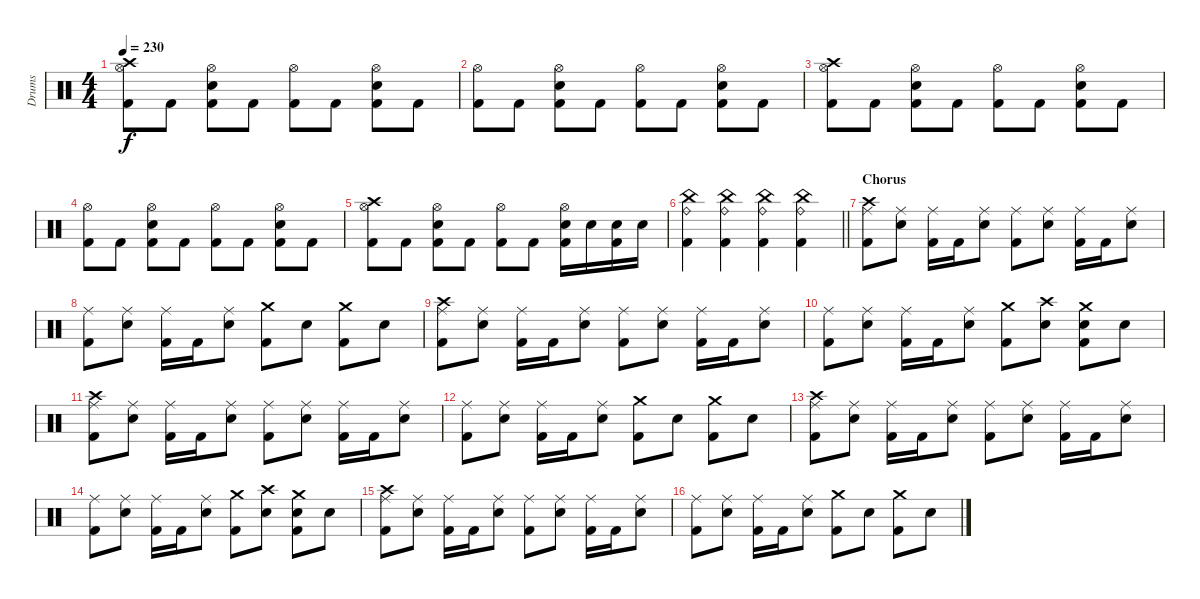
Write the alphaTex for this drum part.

\track ("Drums" "Drums") {instrument percussion}
\staff {score}
\articulation defaults
\ts (4 4)
\tempo 230
\clef neutral
\ks c
("Crash high (hit)" "Hi-Hat (open)" "Kick (hit) 2").8{dy f} "Kick (hit) 2".8 ("Hi-Hat (open)" "Snare (hit) 2" "Kick (hit) 2").8 "Kick (hit) 2".8 ("Hi-Hat (open)" "Kick (hit) 2").8 "Kick (hit) 2".8 ("Hi-Hat (open)" "Snare (hit) 2" "Kick (hit) 2").8 "Kick (hit) 2".8 |
("Hi-Hat (open)" "Kick (hit) 2").8 "Kick (hit) 2".8 ("Hi-Hat (open)" "Snare (hit) 2" "Kick (hit) 2").8 "Kick (hit) 2".8 ("Hi-Hat (open)" "Kick (hit) 2").8 "Kick (hit) 2".8 ("Hi-Hat (open)" "Snare (hit) 2" "Kick (hit) 2").8 "Kick (hit) 2".8 |
("Crash high (hit)" "Hi-Hat (open)" "Kick (hit) 2").8 "Kick (hit) 2".8 ("Hi-Hat (open)" "Snare (hit) 2" "Kick (hit) 2").8 "Kick (hit) 2".8 ("Hi-Hat (open)" "Kick (hit) 2").8 "Kick (hit) 2".8 ("Hi-Hat (open)" "Snare (hit) 2" "Kick (hit) 2").8 "Kick (hit) 2".8 |
("Hi-Hat (open)" "Kick (hit) 2").8 "Kick (hit) 2".8 ("Hi-Hat (open)" "Snare (hit) 2" "Kick (hit) 2").8 "Kick (hit) 2".8 ("Hi-Hat (open)" "Kick (hit) 2").8 "Kick (hit) 2".8 ("Hi-Hat (open)" "Snare (hit) 2" "Kick (hit) 2").8 "Kick (hit) 2".8 |
("Crash high (hit)" "Hi-Hat (open)" "Kick (hit) 2").8 "Kick (hit) 2".8 ("Hi-Hat (open)" "Snare (hit) 2" "Kick (hit) 2").8 "Kick (hit) 2".8 ("Hi-Hat (open)" "Kick (hit) 2").8 "Kick (hit) 2".8 ("Hi-Hat (open)" "Snare (hit) 2" "Kick (hit) 2").16 "Snare (hit) 2".16 ("Snare (hit) 2" "Kick (hit) 2").16 "Snare (hit) 2".16 |
\barLineRight lightlight
("China (hit)" "Ride (bell)" "Kick (hit) 2").4 ("China (hit)" "Ride (bell)" "Kick (hit) 2").4 ("China (hit)" "Ride (bell)" "Kick (hit) 2").4 ("China (hit)" "Ride (bell)" "Kick (hit) 2").4 |
\section ("" "Chorus")
("Crash high (hit)" "Ride (middle)" "Kick (hit) 2").8 ("Ride (middle)" "Snare (hit) 2").8 ("Ride (middle)" "Kick (hit) 2").16 "Kick (hit) 2".16 ("Ride (middle)" "Snare (hit) 2").8 ("Ride (middle)" "Kick (hit) 2").8 ("Ride (middle)" "Snare (hit) 2").8 ("Ride (middle)" "Kick (hit) 2").16 "Kick (hit) 2".16 ("Ride (middle)" "Snare (hit) 2").8 |
("Ride (middle)" "Kick (hit) 2").8 ("Ride (middle)" "Snare (hit) 2").8 ("Ride (middle)" "Kick (hit) 2").16 "Kick (hit) 2".16 ("Ride (middle)" "Snare (hit) 2").8 ("Crash medium (hit)" "Kick (hit) 2").8 "Snare (hit) 2".8 ("Crash medium (hit)" "Kick (hit) 2").8 "Snare (hit) 2".8 |
("Crash high (hit)" "Ride (middle)" "Kick (hit) 2").8 ("Ride (middle)" "Snare (hit) 2").8 ("Ride (middle)" "Kick (hit) 2").16 "Kick (hit) 2".16 ("Ride (middle)" "Snare (hit) 2").8 ("Ride (middle)" "Kick (hit) 2").8 ("Ride (middle)" "Snare (hit) 2").8 ("Ride (middle)" "Kick (hit) 2").16 "Kick (hit) 2".16 ("Ride (middle)" "Snare (hit) 2").8 |
("Ride (middle)" "Kick (hit) 2").8 ("Ride (middle)" "Snare (hit) 2").8 ("Ride (middle)" "Kick (hit) 2").16 "Kick (hit) 2".16 ("Ride (middle)" "Snare (hit) 2").8 ("Crash medium (hit)" "Kick (hit) 2").8 ("Crash high (hit)" "Snare (hit) 2").8 ("Crash medium (hit)" "Snare (hit) 2" "Kick (hit) 2").8 "Snare (hit) 2".8 |
("Crash high (hit)" "Ride (middle)" "Kick (hit) 2").8 ("Ride (middle)" "Snare (hit) 2").8 ("Ride (middle)" "Kick (hit) 2").16 "Kick (hit) 2".16 ("Ride (middle)" "Snare (hit) 2").8 ("Ride (middle)" "Kick (hit) 2").8 ("Ride (middle)" "Snare (hit) 2").8 ("Ride (middle)" "Kick (hit) 2").16 "Kick (hit) 2".16 ("Ride (middle)" "Snare (hit) 2").8 |
("Ride (middle)" "Kick (hit) 2").8 ("Ride (middle)" "Snare (hit) 2").8 ("Ride (middle)" "Kick (hit) 2").16 "Kick (hit) 2".16 ("Ride (middle)" "Snare (hit) 2").8 ("Crash medium (hit)" "Kick (hit) 2").8 "Snare (hit) 2".8 ("Crash medium (hit)" "Kick (hit) 2").8 "Snare (hit) 2".8 |
("Crash high (hit)" "Ride (middle)" "Kick (hit) 2").8 ("Ride (middle)" "Snare (hit) 2").8 ("Ride (middle)" "Kick (hit) 2").16 "Kick (hit) 2".16 ("Ride (middle)" "Snare (hit) 2").8 ("Ride (middle)" "Kick (hit) 2").8 ("Ride (middle)" "Snare (hit) 2").8 ("Ride (middle)" "Kick (hit) 2").16 "Kick (hit) 2".16 ("Ride (middle)" "Snare (hit) 2").8 |
("Ride (middle)" "Kick (hit) 2").8 ("Ride (middle)" "Snare (hit) 2").8 ("Ride (middle)" "Kick (hit) 2").16 "Kick (hit) 2".16 ("Ride (middle)" "Snare (hit) 2").8 ("Crash medium (hit)" "Kick (hit) 2").8 ("Crash high (hit)" "Snare (hit) 2").8 ("Crash medium (hit)" "Snare (hit) 2" "Kick (hit) 2").8 "Snare (hit) 2".8 |
("Crash high (hit)" "Ride (middle)" "Kick (hit) 2").8 ("Ride (middle)" "Snare (hit) 2").8 ("Ride (middle)" "Kick (hit) 2").16 "Kick (hit) 2".16 ("Ride (middle)" "Snare (hit) 2").8 ("Ride (middle)" "Kick (hit) 2").8 ("Ride (middle)" "Snare (hit) 2").8 ("Ride (middle)" "Kick (hit) 2").16 "Kick (hit) 2".16 ("Ride (middle)" "Snare (hit) 2").8 |
("Ride (middle)" "Kick (hit) 2").8 ("Ride (middle)" "Snare (hit) 2").8 ("Ride (middle)" "Kick (hit) 2").16 "Kick (hit) 2".16 ("Ride (middle)" "Snare (hit) 2").8 ("Crash medium (hit)" "Kick (hit) 2").8 "Snare (hit) 2".8 ("Crash medium (hit)" "Kick (hit) 2").8 "Snare (hit) 2".8
